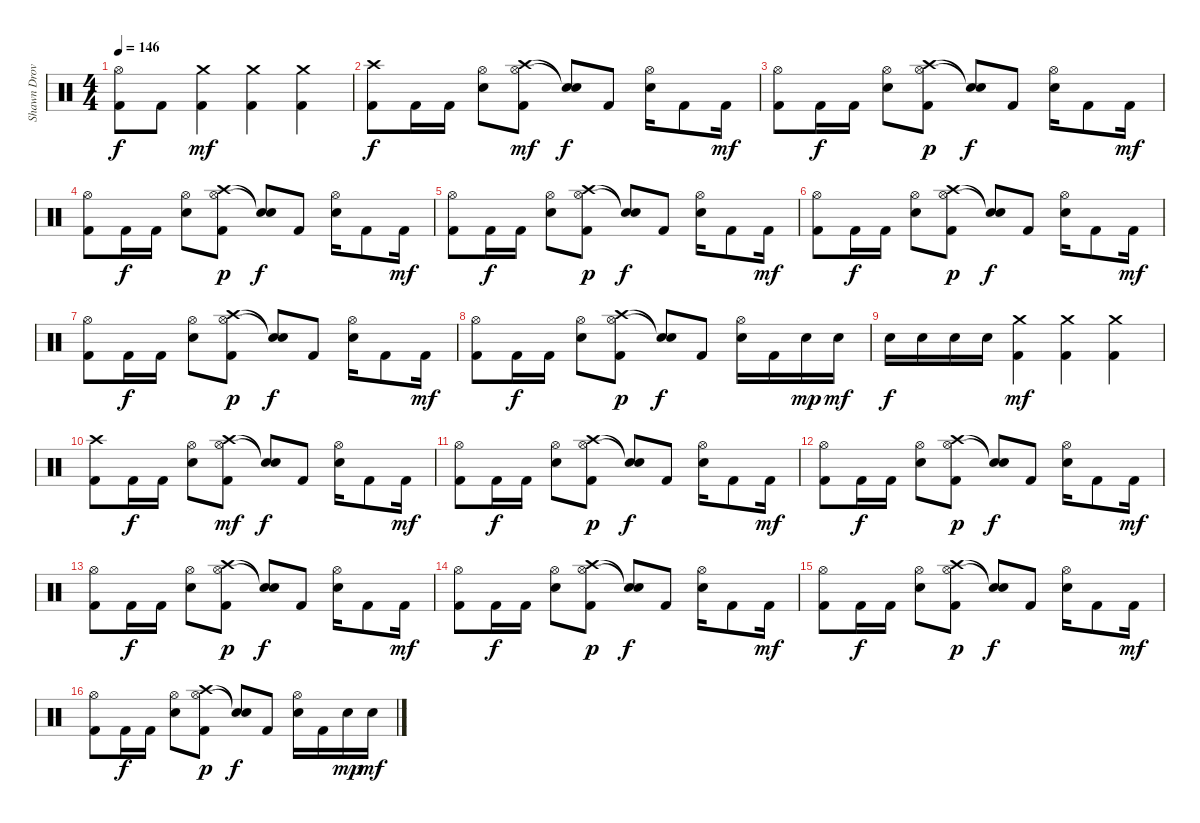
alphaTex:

\track ("Shawn Drover" "Shawn Drov") {instrument percussion}
\staff {score}
\articulation defaults
\ts (4 4)
\tempo 146
\clef neutral
\ks c
("Hi-Hat (open)" "Kick (hit) 2").8{dy f} "Kick (hit) 2".8 ("Crash medium (hit)" "Kick (hit) 2").4{dy mf} ("Crash medium (hit)" "Kick (hit) 2").4 ("Crash medium (hit)" "Kick (hit) 2").4 |
("Crash high (hit)" "Kick (hit) 2").8{dy f} "Kick (hit) 2".16 "Kick (hit) 2".16 ("Hi-Hat (open)" "Snare (hit) 2").8 ("Hi-Hat (open)" "Crash high (hit)" "Kick (hit) 2").8{dy mf} ("Snare (hit)"{t} "Snare (hit)"{t}).8{dy f} "Kick (hit) 2".8 ("Hi-Hat (open)" "Snare (hit) 2").16 "Kick (hit) 2".8 "Kick (hit) 2".16{dy mf} |
("Hi-Hat (open)" "Kick (hit) 2").8 "Kick (hit) 2".16{dy f} "Kick (hit) 2".16 ("Hi-Hat (open)" "Snare (hit) 2").8 ("Hi-Hat (open)" "Crash high (hit)" "Kick (hit) 2").8{dy p} ("Snare (hit)"{t} "Snare (hit)"{t}).8{dy f} "Kick (hit) 2".8 ("Hi-Hat (open)" "Snare (hit) 2").16 "Kick (hit) 2".8 "Kick (hit) 2".16{dy mf} |
("Hi-Hat (open)" "Kick (hit) 2").8 "Kick (hit) 2".16{dy f} "Kick (hit) 2".16 ("Hi-Hat (open)" "Snare (hit) 2").8 ("Hi-Hat (open)" "Crash high (hit)" "Kick (hit) 2").8{dy p} ("Snare (hit)"{t} "Snare (hit)"{t}).8{dy f} "Kick (hit) 2".8 ("Hi-Hat (open)" "Snare (hit) 2").16 "Kick (hit) 2".8 "Kick (hit) 2".16{dy mf} |
("Hi-Hat (open)" "Kick (hit) 2").8 "Kick (hit) 2".16{dy f} "Kick (hit) 2".16 ("Hi-Hat (open)" "Snare (hit) 2").8 ("Hi-Hat (open)" "Crash high (hit)" "Kick (hit) 2").8{dy p} ("Snare (hit)"{t} "Snare (hit)"{t}).8{dy f} "Kick (hit) 2".8 ("Hi-Hat (open)" "Snare (hit) 2").16 "Kick (hit) 2".8 "Kick (hit) 2".16{dy mf} |
("Hi-Hat (open)" "Kick (hit) 2").8 "Kick (hit) 2".16{dy f} "Kick (hit) 2".16 ("Hi-Hat (open)" "Snare (hit) 2").8 ("Hi-Hat (open)" "Crash high (hit)" "Kick (hit) 2").8{dy p} ("Snare (hit)"{t} "Snare (hit)"{t}).8{dy f} "Kick (hit) 2".8 ("Hi-Hat (open)" "Snare (hit) 2").16 "Kick (hit) 2".8 "Kick (hit) 2".16{dy mf} |
("Hi-Hat (open)" "Kick (hit) 2").8 "Kick (hit) 2".16{dy f} "Kick (hit) 2".16 ("Hi-Hat (open)" "Snare (hit) 2").8 ("Hi-Hat (open)" "Crash high (hit)" "Kick (hit) 2").8{dy p} ("Snare (hit)"{t} "Snare (hit)"{t}).8{dy f} "Kick (hit) 2".8 ("Hi-Hat (open)" "Snare (hit) 2").16 "Kick (hit) 2".8 "Kick (hit) 2".16{dy mf} |
("Hi-Hat (open)" "Kick (hit) 2").8 "Kick (hit) 2".16{dy f} "Kick (hit) 2".16 ("Hi-Hat (open)" "Snare (hit) 2").8 ("Hi-Hat (open)" "Crash high (hit)" "Kick (hit) 2").8{dy p} ("Snare (hit)"{t} "Snare (hit)"{t}).8{dy f} "Kick (hit) 2".8 ("Hi-Hat (open)" "Snare (hit) 2").16 "Kick (hit) 2".16 "Snare (hit) 2".16{dy mp} "Snare (hit) 2".16{dy mf} |
"Snare (hit) 2".16{dy f} "Snare (hit) 2".16 "Snare (hit) 2".16 "Snare (hit) 2".16 ("Crash medium (hit)" "Kick (hit) 2").4{dy mf} ("Crash medium (hit)" "Kick (hit) 2").4 ("Crash medium (hit)" "Kick (hit) 2").4 |
("Crash high (hit)" "Kick (hit) 2").8 "Kick (hit) 2".16{dy f} "Kick (hit) 2".16 ("Hi-Hat (open)" "Snare (hit) 2").8 ("Hi-Hat (open)" "Crash high (hit)" "Kick (hit) 2").8{dy mf} ("Snare (hit)"{t} "Snare (hit)"{t}).8{dy f} "Kick (hit) 2".8 ("Hi-Hat (open)" "Snare (hit) 2").16 "Kick (hit) 2".8 "Kick (hit) 2".16{dy mf} |
("Hi-Hat (open)" "Kick (hit) 2").8 "Kick (hit) 2".16{dy f} "Kick (hit) 2".16 ("Hi-Hat (open)" "Snare (hit) 2").8 ("Hi-Hat (open)" "Crash high (hit)" "Kick (hit) 2").8{dy p} ("Snare (hit)"{t} "Snare (hit)"{t}).8{dy f} "Kick (hit) 2".8 ("Hi-Hat (open)" "Snare (hit) 2").16 "Kick (hit) 2".8 "Kick (hit) 2".16{dy mf} |
("Hi-Hat (open)" "Kick (hit) 2").8 "Kick (hit) 2".16{dy f} "Kick (hit) 2".16 ("Hi-Hat (open)" "Snare (hit) 2").8 ("Hi-Hat (open)" "Crash high (hit)" "Kick (hit) 2").8{dy p} ("Snare (hit)"{t} "Snare (hit)"{t}).8{dy f} "Kick (hit) 2".8 ("Hi-Hat (open)" "Snare (hit) 2").16 "Kick (hit) 2".8 "Kick (hit) 2".16{dy mf} |
("Hi-Hat (open)" "Kick (hit) 2").8 "Kick (hit) 2".16{dy f} "Kick (hit) 2".16 ("Hi-Hat (open)" "Snare (hit) 2").8 ("Hi-Hat (open)" "Crash high (hit)" "Kick (hit) 2").8{dy p} ("Snare (hit)"{t} "Snare (hit)"{t}).8{dy f} "Kick (hit) 2".8 ("Hi-Hat (open)" "Snare (hit) 2").16 "Kick (hit) 2".8 "Kick (hit) 2".16{dy mf} |
("Hi-Hat (open)" "Kick (hit) 2").8 "Kick (hit) 2".16{dy f} "Kick (hit) 2".16 ("Hi-Hat (open)" "Snare (hit) 2").8 ("Hi-Hat (open)" "Crash high (hit)" "Kick (hit) 2").8{dy p} ("Snare (hit)"{t} "Snare (hit)"{t}).8{dy f} "Kick (hit) 2".8 ("Hi-Hat (open)" "Snare (hit) 2").16 "Kick (hit) 2".8 "Kick (hit) 2".16{dy mf} |
("Hi-Hat (open)" "Kick (hit) 2").8 "Kick (hit) 2".16{dy f} "Kick (hit) 2".16 ("Hi-Hat (open)" "Snare (hit) 2").8 ("Hi-Hat (open)" "Crash high (hit)" "Kick (hit) 2").8{dy p} ("Snare (hit)"{t} "Snare (hit)"{t}).8{dy f} "Kick (hit) 2".8 ("Hi-Hat (open)" "Snare (hit) 2").16 "Kick (hit) 2".8 "Kick (hit) 2".16{dy mf} |
("Hi-Hat (open)" "Kick (hit) 2").8 "Kick (hit) 2".16{dy f} "Kick (hit) 2".16 ("Hi-Hat (open)" "Snare (hit) 2").8 ("Hi-Hat (open)" "Crash high (hit)" "Kick (hit) 2").8{dy p} ("Snare (hit)"{t} "Snare (hit)"{t}).8{dy f} "Kick (hit) 2".8 ("Hi-Hat (open)" "Snare (hit) 2").16 "Kick (hit) 2".16 "Snare (hit) 2".16{dy mp} "Snare (hit) 2".16{dy mf}
